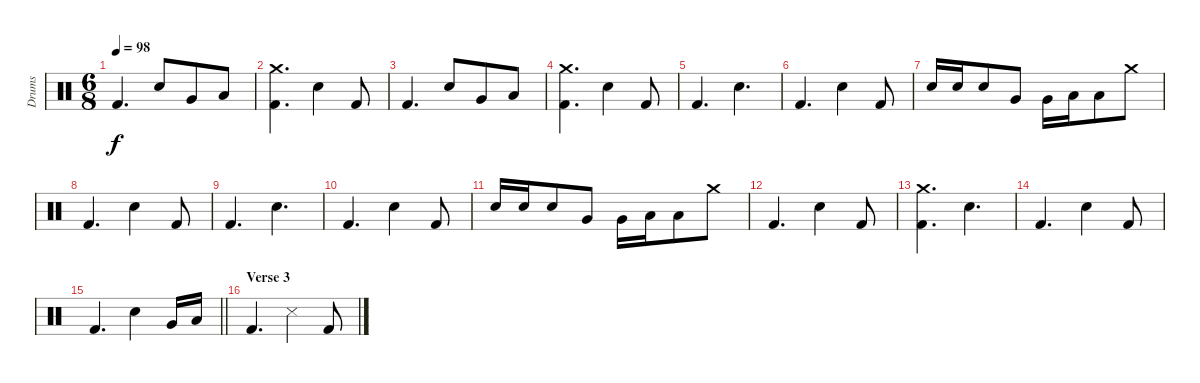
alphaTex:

\track ("Drums" "Drums") {instrument percussion}
\staff {score}
\articulation defaults
\ts (6 8)
\tempo 98
\clef neutral
\ks c "Kick (hit) 2".4{d dy f} "Snare (hit) 2".8 "Very Low Tom (hit)".8 "Low Tom (hit)".8
|
("Kick (hit) 2" "Crash medium (hit)").4{d} "Snare (hit) 2".4 "Kick (hit) 2".8 |
"Kick (hit) 2".4{d} "Snare (hit) 2".8 "Very Low Tom (hit)".8 "Low Tom (hit)".8 |
("Kick (hit) 2" "Crash medium (hit)").4{d} "Snare (hit) 2".4 "Kick (hit) 2".8 |
"Kick (hit) 2".4{d} "Snare (hit) 2".4{d} |
"Kick (hit) 2".4{d} "Snare (hit) 2".4 "Kick (hit) 2".8 |
"Snare (hit) 2".16 "Snare (hit) 2".16 "Snare (hit) 2".8 "Very Low Tom (hit)".8 "Very Low Tom (hit)".16 "Low Tom (hit)".16 "Low Tom (hit)".8 "Crash medium (hit)".8 |
"Kick (hit) 2".4{d} "Snare (hit) 2".4 "Kick (hit) 2".8 |
"Kick (hit) 2".4{d} "Snare (hit) 2".4{d} |
"Kick (hit) 2".4{d} "Snare (hit) 2".4 "Kick (hit) 2".8 |
"Snare (hit) 2".16 "Snare (hit) 2".16 "Snare (hit) 2".8 "Very Low Tom (hit)".8 "Very Low Tom (hit)".16 "Low Tom (hit)".16 "Low Tom (hit)".8 "Crash medium (hit)".8 |
"Kick (hit) 2".4{d} "Snare (hit) 2".4 "Kick (hit) 2".8 |
("Kick (hit) 2" "Crash medium (hit)").4{d} "Snare (hit) 2".4{d} |
"Kick (hit) 2".4{d} "Snare (hit) 2".4 "Kick (hit) 2".8 |
\barLineRight lightlight "Kick (hit) 2".4{d} "Snare (hit) 2".4 "Very Low Tom (hit)".16 "Low Tom (hit)".16
|
\section ("" "Verse 3")
"Kick (hit) 2".4{d} "Snare (side stick) 3".4 "Kick (hit) 2".8
